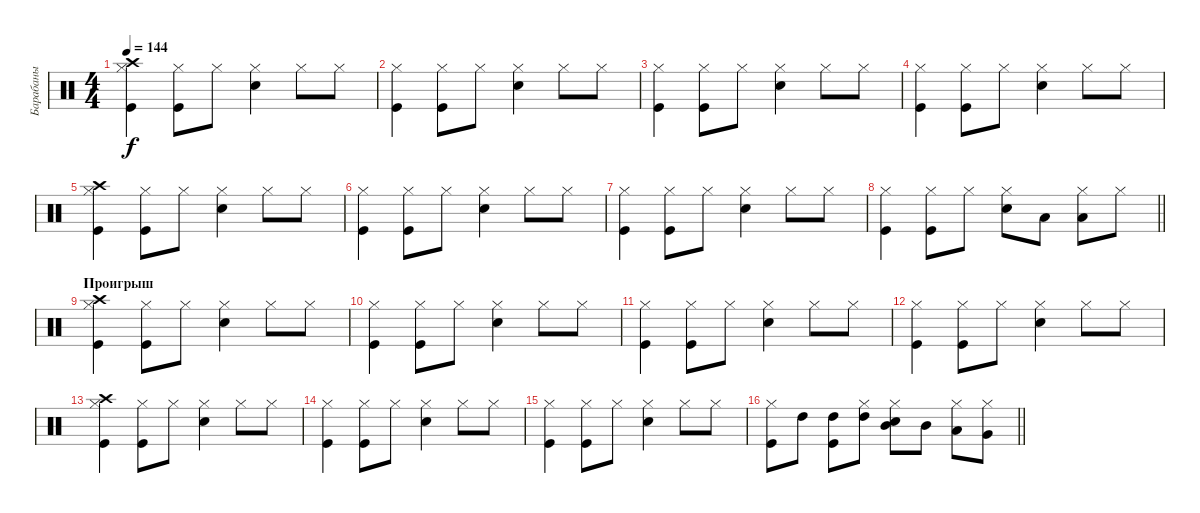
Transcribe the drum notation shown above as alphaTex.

\track ("Барабаны" "Барабаны") {instrument percussion}
\staff {score}
\articulation defaults
\ts (4 4)
\tempo 144
\clef neutral
\ks c
("Kick (hit)" "Hi-Hat (closed)" "Crash high (hit)").4{dy f} ("Kick (hit)" "Hi-Hat (closed)").8 "Hi-Hat (closed)".8 ("Snare (hit) 2" "Hi-Hat (closed)").4 "Hi-Hat (closed)".8 "Hi-Hat (closed)".8 |
("Kick (hit)" "Hi-Hat (closed)").4 ("Kick (hit)" "Hi-Hat (closed)").8 "Hi-Hat (closed)".8 ("Snare (hit) 2" "Hi-Hat (closed)").4 "Hi-Hat (closed)".8 "Hi-Hat (closed)".8 |
("Kick (hit)" "Hi-Hat (closed)").4 ("Kick (hit)" "Hi-Hat (closed)").8 "Hi-Hat (closed)".8 ("Snare (hit) 2" "Hi-Hat (closed)").4 "Hi-Hat (closed)".8 "Hi-Hat (closed)".8 |
("Kick (hit)" "Hi-Hat (closed)").4 ("Kick (hit)" "Hi-Hat (closed)").8 "Hi-Hat (closed)".8 ("Snare (hit) 2" "Hi-Hat (closed)").4 "Hi-Hat (closed)".8 "Hi-Hat (closed)".8 |
("Kick (hit)" "Hi-Hat (closed)" "Crash high (hit)").4 ("Kick (hit)" "Hi-Hat (closed)").8 "Hi-Hat (closed)".8 ("Snare (hit) 2" "Hi-Hat (closed)").4 "Hi-Hat (closed)".8 "Hi-Hat (closed)".8 |
("Kick (hit)" "Hi-Hat (closed)").4 ("Kick (hit)" "Hi-Hat (closed)").8 "Hi-Hat (closed)".8 ("Snare (hit) 2" "Hi-Hat (closed)").4 "Hi-Hat (closed)".8 "Hi-Hat (closed)".8 |
("Kick (hit)" "Hi-Hat (closed)").4 ("Kick (hit)" "Hi-Hat (closed)").8 "Hi-Hat (closed)".8 ("Snare (hit) 2" "Hi-Hat (closed)").4 "Hi-Hat (closed)".8 "Hi-Hat (closed)".8 |
\barLineRight lightlight
("Kick (hit)" "Hi-Hat (closed)").4 ("Kick (hit)" "Hi-Hat (closed)").8 "Hi-Hat (closed)".8 ("Snare (hit) 2" "Hi-Hat (closed)").8 "Low Tom (hit)".8 ("Hi-Hat (closed)" "Low Tom (hit)").8 "Hi-Hat (closed)".8 |
\section ("" "Проигрыш")
("Kick (hit)" "Hi-Hat (closed)" "Crash high (hit)").4 ("Kick (hit)" "Hi-Hat (closed)").8 "Hi-Hat (closed)".8 ("Snare (hit) 2" "Hi-Hat (closed)").4 "Hi-Hat (closed)".8 "Hi-Hat (closed)".8 |
("Kick (hit)" "Hi-Hat (closed)").4 ("Kick (hit)" "Hi-Hat (closed)").8 "Hi-Hat (closed)".8 ("Snare (hit) 2" "Hi-Hat (closed)").4 "Hi-Hat (closed)".8 "Hi-Hat (closed)".8 |
("Kick (hit)" "Hi-Hat (closed)").4 ("Kick (hit)" "Hi-Hat (closed)").8 "Hi-Hat (closed)".8 ("Snare (hit) 2" "Hi-Hat (closed)").4 "Hi-Hat (closed)".8 "Hi-Hat (closed)".8 |
("Kick (hit)" "Hi-Hat (closed)").4 ("Kick (hit)" "Hi-Hat (closed)").8 "Hi-Hat (closed)".8 ("Snare (hit) 2" "Hi-Hat (closed)").4 "Hi-Hat (closed)".8 "Hi-Hat (closed)".8 |
("Kick (hit)" "Hi-Hat (closed)" "Crash high (hit)").4 ("Kick (hit)" "Hi-Hat (closed)").8 "Hi-Hat (closed)".8 ("Snare (hit) 2" "Hi-Hat (closed)").4 "Hi-Hat (closed)".8 "Hi-Hat (closed)".8 |
("Kick (hit)" "Hi-Hat (closed)").4 ("Kick (hit)" "Hi-Hat (closed)").8 "Hi-Hat (closed)".8 ("Snare (hit) 2" "Hi-Hat (closed)").4 "Hi-Hat (closed)".8 "Hi-Hat (closed)".8 |
("Kick (hit)" "Hi-Hat (closed)").4 ("Kick (hit)" "Hi-Hat (closed)").8 "Hi-Hat (closed)".8 ("Snare (hit) 2" "Hi-Hat (closed)").4 "Hi-Hat (closed)".8 "Hi-Hat (closed)".8 |
\barLineRight lightlight
("Kick (hit)" "Hi-Hat (closed)").8 "High Tom (hit)".8 ("Kick (hit)" "High Tom (hit)").8 ("Hi-Hat (closed)" "High Tom (hit)").8 ("Snare (hit) 2" "Hi-Hat (closed)" "Mid Tom (hit)").8 "Mid Tom (hit)".8 ("Hi-Hat (closed)" "Low Tom (hit)").8 ("Hi-Hat (closed)" "Very Low Tom (hit)").8
